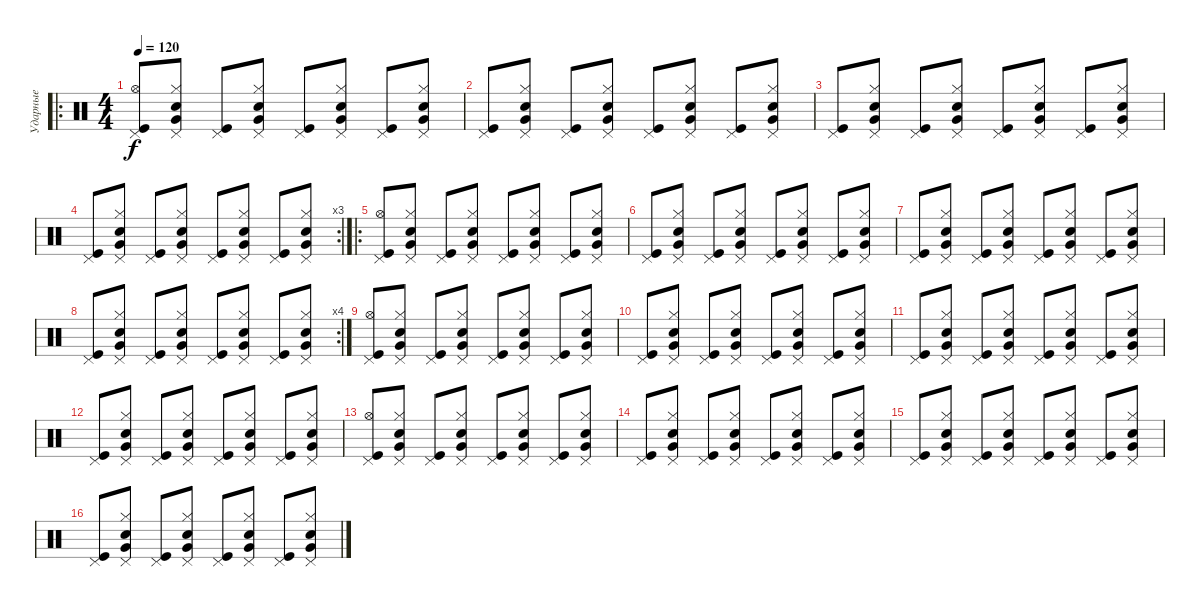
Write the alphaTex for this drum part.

\track ("Ударные" "Ударные") {instrument percussion}
\staff {score}
\articulation defaults
\ro
\ts (4 4)
\tempo 120
\clef neutral
\ks c
("Pedal Hi-Hat (hit)" "Hi-Hat (open)" "Kick (hit)").8{dy f} ("Pedal Hi-Hat (hit)" "Hi-Hat (closed)" "Electric Snare (hit)" "Very Low Tom (hit)").8 ("Pedal Hi-Hat (hit)" "Kick (hit)").8 ("Pedal Hi-Hat (hit)" "Hi-Hat (closed)" "Electric Snare (hit)" "Very Low Tom (hit)").8 ("Pedal Hi-Hat (hit)" "Kick (hit)").8 ("Pedal Hi-Hat (hit)" "Hi-Hat (closed)" "Electric Snare (hit)" "Very Low Tom (hit)").8 ("Pedal Hi-Hat (hit)" "Kick (hit)").8 ("Pedal Hi-Hat (hit)" "Hi-Hat (closed)" "Electric Snare (hit)" "Very Low Tom (hit)").8 |
("Pedal Hi-Hat (hit)" "Kick (hit)").8 ("Pedal Hi-Hat (hit)" "Hi-Hat (closed)" "Electric Snare (hit)" "Very Low Tom (hit)").8 ("Pedal Hi-Hat (hit)" "Kick (hit)").8 ("Pedal Hi-Hat (hit)" "Hi-Hat (closed)" "Electric Snare (hit)" "Very Low Tom (hit)").8 ("Pedal Hi-Hat (hit)" "Kick (hit)").8 ("Pedal Hi-Hat (hit)" "Hi-Hat (closed)" "Electric Snare (hit)" "Very Low Tom (hit)").8 ("Pedal Hi-Hat (hit)" "Kick (hit)").8 ("Pedal Hi-Hat (hit)" "Hi-Hat (closed)" "Electric Snare (hit)" "Very Low Tom (hit)").8 |
("Pedal Hi-Hat (hit)" "Kick (hit)").8 ("Pedal Hi-Hat (hit)" "Hi-Hat (closed)" "Electric Snare (hit)" "Very Low Tom (hit)").8 ("Pedal Hi-Hat (hit)" "Kick (hit)").8 ("Pedal Hi-Hat (hit)" "Hi-Hat (closed)" "Electric Snare (hit)" "Very Low Tom (hit)").8 ("Pedal Hi-Hat (hit)" "Kick (hit)").8 ("Pedal Hi-Hat (hit)" "Hi-Hat (closed)" "Electric Snare (hit)" "Very Low Tom (hit)").8 ("Pedal Hi-Hat (hit)" "Kick (hit)").8 ("Pedal Hi-Hat (hit)" "Hi-Hat (closed)" "Electric Snare (hit)" "Very Low Tom (hit)").8 |
\rc 3
("Pedal Hi-Hat (hit)" "Kick (hit)").8 ("Pedal Hi-Hat (hit)" "Hi-Hat (closed)" "Electric Snare (hit)" "Very Low Tom (hit)").8 ("Pedal Hi-Hat (hit)" "Kick (hit)").8 ("Pedal Hi-Hat (hit)" "Hi-Hat (closed)" "Electric Snare (hit)" "Very Low Tom (hit)").8 ("Pedal Hi-Hat (hit)" "Kick (hit)").8 ("Pedal Hi-Hat (hit)" "Hi-Hat (closed)" "Electric Snare (hit)" "Very Low Tom (hit)").8 ("Pedal Hi-Hat (hit)" "Kick (hit)").8 ("Pedal Hi-Hat (hit)" "Hi-Hat (closed)" "Electric Snare (hit)" "Very Low Tom (hit)").8 |
\ro
("Pedal Hi-Hat (hit)" "Hi-Hat (open)" "Kick (hit)").8 ("Pedal Hi-Hat (hit)" "Hi-Hat (closed)" "Electric Snare (hit)" "Very Low Tom (hit)").8 ("Pedal Hi-Hat (hit)" "Kick (hit)").8 ("Pedal Hi-Hat (hit)" "Hi-Hat (closed)" "Electric Snare (hit)" "Very Low Tom (hit)").8 ("Pedal Hi-Hat (hit)" "Kick (hit)").8 ("Pedal Hi-Hat (hit)" "Hi-Hat (closed)" "Electric Snare (hit)" "Very Low Tom (hit)").8 ("Pedal Hi-Hat (hit)" "Kick (hit)").8 ("Pedal Hi-Hat (hit)" "Hi-Hat (closed)" "Electric Snare (hit)" "Very Low Tom (hit)").8 |
("Pedal Hi-Hat (hit)" "Kick (hit)").8 ("Pedal Hi-Hat (hit)" "Hi-Hat (closed)" "Electric Snare (hit)" "Very Low Tom (hit)").8 ("Pedal Hi-Hat (hit)" "Kick (hit)").8 ("Pedal Hi-Hat (hit)" "Hi-Hat (closed)" "Electric Snare (hit)" "Very Low Tom (hit)").8 ("Pedal Hi-Hat (hit)" "Kick (hit)").8 ("Pedal Hi-Hat (hit)" "Hi-Hat (closed)" "Electric Snare (hit)" "Very Low Tom (hit)").8 ("Pedal Hi-Hat (hit)" "Kick (hit)").8 ("Pedal Hi-Hat (hit)" "Hi-Hat (closed)" "Electric Snare (hit)" "Very Low Tom (hit)").8 |
("Pedal Hi-Hat (hit)" "Kick (hit)").8 ("Pedal Hi-Hat (hit)" "Hi-Hat (closed)" "Electric Snare (hit)" "Very Low Tom (hit)").8 ("Pedal Hi-Hat (hit)" "Kick (hit)").8 ("Pedal Hi-Hat (hit)" "Hi-Hat (closed)" "Electric Snare (hit)" "Very Low Tom (hit)").8 ("Pedal Hi-Hat (hit)" "Kick (hit)").8 ("Pedal Hi-Hat (hit)" "Hi-Hat (closed)" "Electric Snare (hit)" "Very Low Tom (hit)").8 ("Pedal Hi-Hat (hit)" "Kick (hit)").8 ("Pedal Hi-Hat (hit)" "Hi-Hat (closed)" "Electric Snare (hit)" "Very Low Tom (hit)").8 |
\rc 4
("Pedal Hi-Hat (hit)" "Kick (hit)").8 ("Pedal Hi-Hat (hit)" "Hi-Hat (closed)" "Electric Snare (hit)" "Very Low Tom (hit)").8 ("Pedal Hi-Hat (hit)" "Kick (hit)").8 ("Pedal Hi-Hat (hit)" "Hi-Hat (closed)" "Electric Snare (hit)" "Very Low Tom (hit)").8 ("Pedal Hi-Hat (hit)" "Kick (hit)").8 ("Pedal Hi-Hat (hit)" "Hi-Hat (closed)" "Electric Snare (hit)" "Very Low Tom (hit)").8 ("Pedal Hi-Hat (hit)" "Kick (hit)").8 ("Pedal Hi-Hat (hit)" "Hi-Hat (closed)" "Electric Snare (hit)" "Very Low Tom (hit)").8 |
("Pedal Hi-Hat (hit)" "Hi-Hat (open)" "Kick (hit)").8 ("Pedal Hi-Hat (hit)" "Hi-Hat (closed)" "Electric Snare (hit)" "Very Low Tom (hit)").8 ("Pedal Hi-Hat (hit)" "Kick (hit)").8 ("Pedal Hi-Hat (hit)" "Hi-Hat (closed)" "Electric Snare (hit)" "Very Low Tom (hit)").8 ("Pedal Hi-Hat (hit)" "Kick (hit)").8 ("Pedal Hi-Hat (hit)" "Hi-Hat (closed)" "Electric Snare (hit)" "Very Low Tom (hit)").8 ("Pedal Hi-Hat (hit)" "Kick (hit)").8 ("Pedal Hi-Hat (hit)" "Hi-Hat (closed)" "Electric Snare (hit)" "Very Low Tom (hit)").8 |
("Pedal Hi-Hat (hit)" "Kick (hit)").8 ("Pedal Hi-Hat (hit)" "Hi-Hat (closed)" "Electric Snare (hit)" "Very Low Tom (hit)").8 ("Pedal Hi-Hat (hit)" "Kick (hit)").8 ("Pedal Hi-Hat (hit)" "Hi-Hat (closed)" "Electric Snare (hit)" "Very Low Tom (hit)").8 ("Pedal Hi-Hat (hit)" "Kick (hit)").8 ("Pedal Hi-Hat (hit)" "Hi-Hat (closed)" "Electric Snare (hit)" "Very Low Tom (hit)").8 ("Pedal Hi-Hat (hit)" "Kick (hit)").8 ("Pedal Hi-Hat (hit)" "Hi-Hat (closed)" "Electric Snare (hit)" "Very Low Tom (hit)").8 |
("Pedal Hi-Hat (hit)" "Kick (hit)").8 ("Pedal Hi-Hat (hit)" "Hi-Hat (closed)" "Electric Snare (hit)" "Very Low Tom (hit)").8 ("Pedal Hi-Hat (hit)" "Kick (hit)").8 ("Pedal Hi-Hat (hit)" "Hi-Hat (closed)" "Electric Snare (hit)" "Very Low Tom (hit)").8 ("Pedal Hi-Hat (hit)" "Kick (hit)").8 ("Pedal Hi-Hat (hit)" "Hi-Hat (closed)" "Electric Snare (hit)" "Very Low Tom (hit)").8 ("Pedal Hi-Hat (hit)" "Kick (hit)").8 ("Pedal Hi-Hat (hit)" "Hi-Hat (closed)" "Electric Snare (hit)" "Very Low Tom (hit)").8 |
("Pedal Hi-Hat (hit)" "Kick (hit)").8 ("Pedal Hi-Hat (hit)" "Hi-Hat (closed)" "Electric Snare (hit)" "Very Low Tom (hit)").8 ("Pedal Hi-Hat (hit)" "Kick (hit)").8 ("Pedal Hi-Hat (hit)" "Hi-Hat (closed)" "Electric Snare (hit)" "Very Low Tom (hit)").8 ("Pedal Hi-Hat (hit)" "Kick (hit)").8 ("Pedal Hi-Hat (hit)" "Hi-Hat (closed)" "Electric Snare (hit)" "Very Low Tom (hit)").8 ("Pedal Hi-Hat (hit)" "Kick (hit)").8 ("Pedal Hi-Hat (hit)" "Hi-Hat (closed)" "Electric Snare (hit)" "Very Low Tom (hit)").8 |
("Pedal Hi-Hat (hit)" "Hi-Hat (open)" "Kick (hit)").8 ("Pedal Hi-Hat (hit)" "Hi-Hat (closed)" "Electric Snare (hit)" "Very Low Tom (hit)").8 ("Pedal Hi-Hat (hit)" "Kick (hit)").8 ("Pedal Hi-Hat (hit)" "Hi-Hat (closed)" "Electric Snare (hit)" "Very Low Tom (hit)").8 ("Pedal Hi-Hat (hit)" "Kick (hit)").8 ("Pedal Hi-Hat (hit)" "Hi-Hat (closed)" "Electric Snare (hit)" "Very Low Tom (hit)").8 ("Pedal Hi-Hat (hit)" "Kick (hit)").8 ("Pedal Hi-Hat (hit)" "Hi-Hat (closed)" "Electric Snare (hit)" "Very Low Tom (hit)").8 |
("Pedal Hi-Hat (hit)" "Kick (hit)").8 ("Pedal Hi-Hat (hit)" "Hi-Hat (closed)" "Electric Snare (hit)" "Very Low Tom (hit)").8 ("Pedal Hi-Hat (hit)" "Kick (hit)").8 ("Pedal Hi-Hat (hit)" "Hi-Hat (closed)" "Electric Snare (hit)" "Very Low Tom (hit)").8 ("Pedal Hi-Hat (hit)" "Kick (hit)").8 ("Pedal Hi-Hat (hit)" "Hi-Hat (closed)" "Electric Snare (hit)" "Very Low Tom (hit)").8 ("Pedal Hi-Hat (hit)" "Kick (hit)").8 ("Pedal Hi-Hat (hit)" "Hi-Hat (closed)" "Electric Snare (hit)" "Very Low Tom (hit)").8 |
("Pedal Hi-Hat (hit)" "Kick (hit)").8 ("Pedal Hi-Hat (hit)" "Hi-Hat (closed)" "Electric Snare (hit)" "Very Low Tom (hit)").8 ("Pedal Hi-Hat (hit)" "Kick (hit)").8 ("Pedal Hi-Hat (hit)" "Hi-Hat (closed)" "Electric Snare (hit)" "Very Low Tom (hit)").8 ("Pedal Hi-Hat (hit)" "Kick (hit)").8 ("Pedal Hi-Hat (hit)" "Hi-Hat (closed)" "Electric Snare (hit)" "Very Low Tom (hit)").8 ("Pedal Hi-Hat (hit)" "Kick (hit)").8 ("Pedal Hi-Hat (hit)" "Hi-Hat (closed)" "Electric Snare (hit)" "Very Low Tom (hit)").8 |
("Pedal Hi-Hat (hit)" "Kick (hit)").8 ("Pedal Hi-Hat (hit)" "Hi-Hat (closed)" "Electric Snare (hit)" "Very Low Tom (hit)").8 ("Pedal Hi-Hat (hit)" "Kick (hit)").8 ("Pedal Hi-Hat (hit)" "Hi-Hat (closed)" "Electric Snare (hit)" "Very Low Tom (hit)").8 ("Pedal Hi-Hat (hit)" "Kick (hit)").8 ("Pedal Hi-Hat (hit)" "Hi-Hat (closed)" "Electric Snare (hit)" "Very Low Tom (hit)").8 ("Pedal Hi-Hat (hit)" "Kick (hit)").8 ("Pedal Hi-Hat (hit)" "Hi-Hat (closed)" "Electric Snare (hit)" "Very Low Tom (hit)").8
